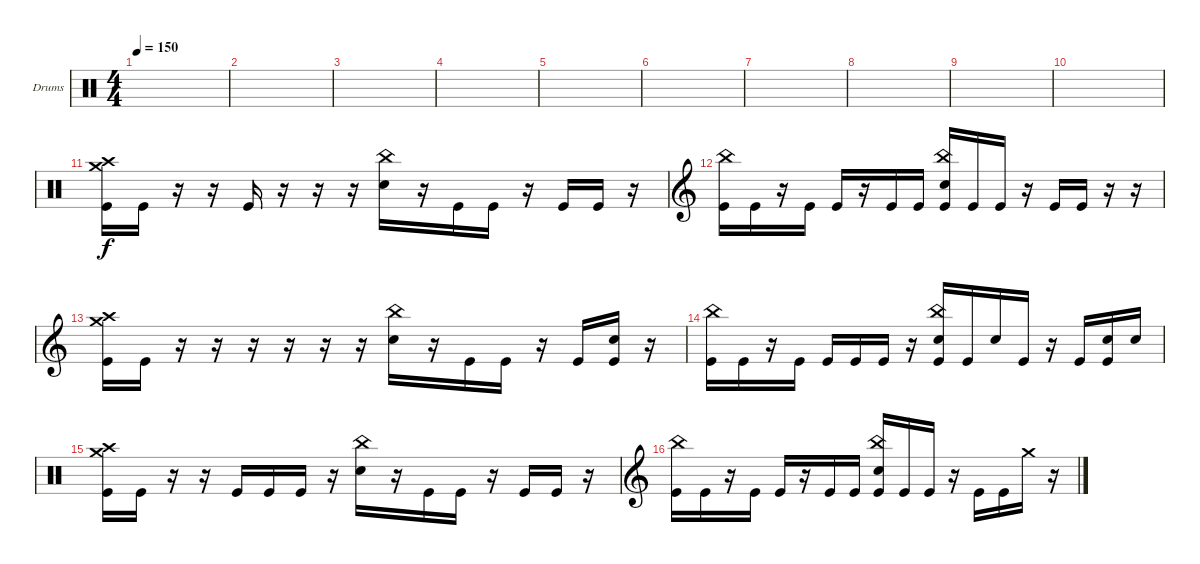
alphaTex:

\defaultSystemsLayout 4
\bracketExtendMode groupsimilarinstruments
\firstSystemTrackNameOrientation horizontal
\otherSystemsTrackNameOrientation horizontal
\track ("Drumkit" "Drums") {instrument percussion}
\staff {score}
\articulation defaults
\ts (4 4)
\tempo 150
\clef neutral
\ks c
|
|
|
|
|
|
|
|
|
|
("Kick (hit)" "Crash high (hit)" "Crash medium (hit)").16 "Kick (hit)".16 r.16 r.16 "Kick (hit)".16 r.16 r.16 r.16 ("China (hit)" "Snare (hit) 2").16 r.16 "Kick (hit)".16 "Kick (hit)".16 r.16 "Kick (hit)".16 "Kick (hit)".16 r.16 |
\clef g2
("Kick (hit)" "China (hit)").16 "Kick (hit)".16 r.16 "Kick (hit)".16 "Kick (hit)".16 r.16 "Kick (hit)".16 "Kick (hit)".16 ("Kick (hit)" "China (hit)" "Snare (hit) 2").16 "Kick (hit)".16 "Kick (hit)".16 r.16 "Kick (hit)".16 "Kick (hit)".16 r.16 r.16 |
("Kick (hit)" "Crash high (hit)" "Crash medium (hit)").16 "Kick (hit)".16 r.16 r.16 r.16 r.16 r.16 r.16 ("China (hit)" "Snare (hit) 2").16 r.16 "Kick (hit)".16 "Kick (hit)".16 r.16 "Kick (hit)".16 ("Kick (hit)" "Snare (hit) 2").16 r.16 |
("Kick (hit)" "China (hit)").16 "Kick (hit)".16 r.16 "Kick (hit)".16 "Kick (hit)".16 "Kick (hit)".16 "Kick (hit)".16 r.16 ("Kick (hit)" "China (hit)" "Snare (hit) 2").16 "Kick (hit)".16 "Snare (hit) 2".16 "Kick (hit)".16 r.16 "Kick (hit)".16 ("Kick (hit)" "Snare (hit) 2").16 "Snare (hit) 2".16 |
\clef neutral
("Kick (hit)" "Crash high (hit)" "Crash medium (hit)").16 "Kick (hit)".16 r.16 r.16 "Kick (hit)".16 "Kick (hit)".16 "Kick (hit)".16 r.16 ("China (hit)" "Snare (hit) 2").16 r.16 "Kick (hit)".16 "Kick (hit)".16 r.16 "Kick (hit)".16 "Kick (hit)".16 r.16 |
\clef g2
("Kick (hit)" "China (hit)").16 "Kick (hit)".16 r.16 "Kick (hit)".16 "Kick (hit)".16 r.16 "Kick (hit)".16 "Kick (hit)".16 ("Kick (hit)" "China (hit)" "Snare (hit) 2").16 "Kick (hit)".16 "Kick (hit)".16 r.16 "Kick (hit)".16 "Kick (hit)".16 "Crash medium (hit)".16 r.16
